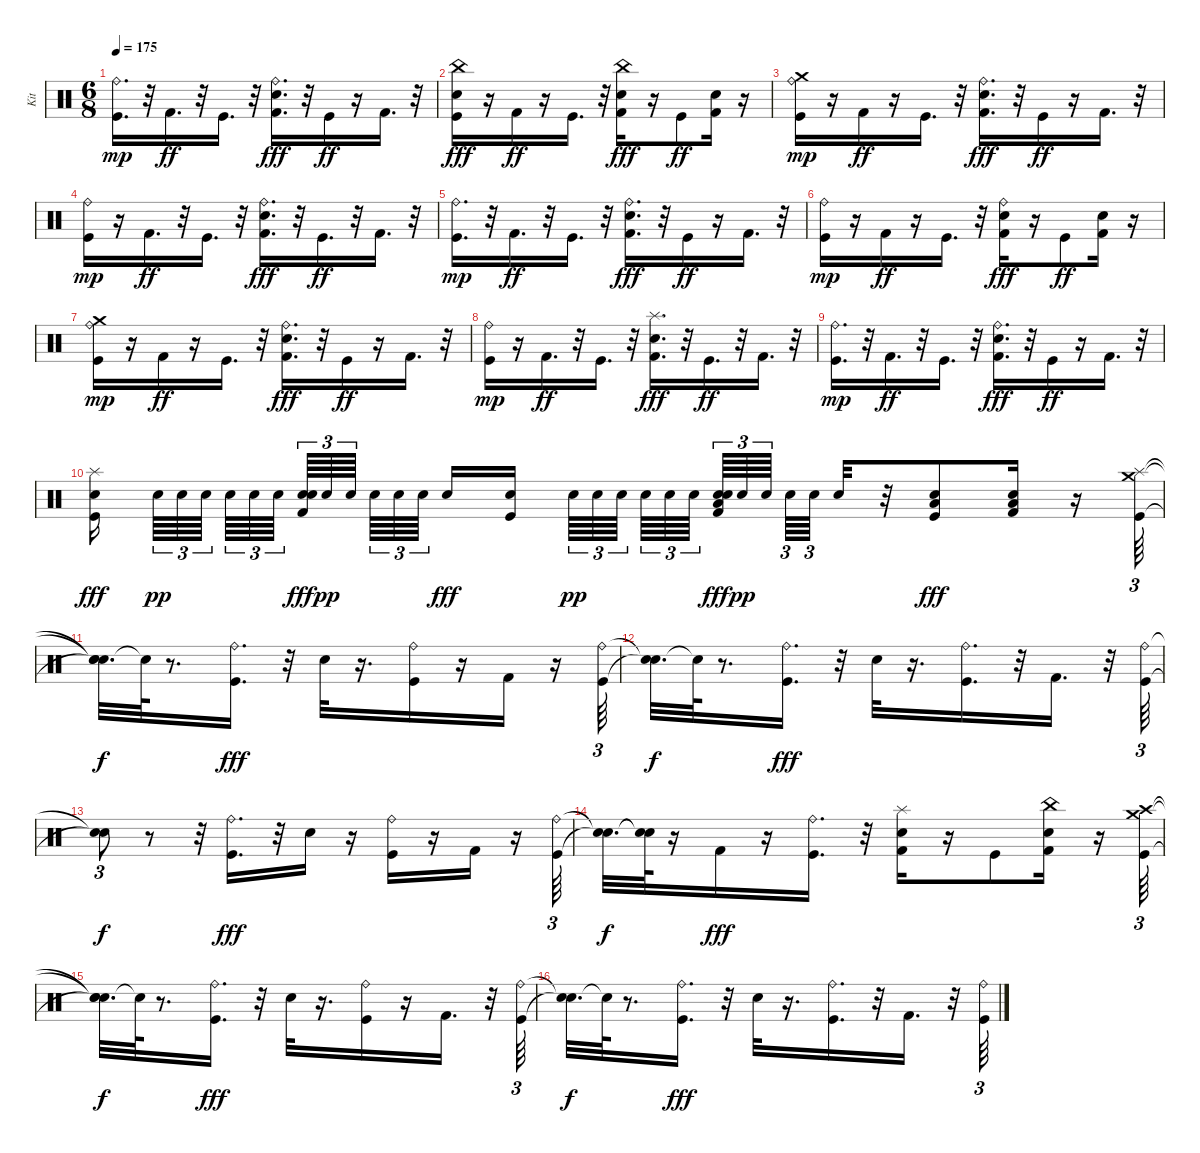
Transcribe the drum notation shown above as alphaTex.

\track ("Kit" "Kit") {instrument percussion}
\staff {score}
\articulation defaults
\ts (6 8)
\tempo 175
\clef neutral
\ks c
("Kick (hit)" "Ride (bell)").16{d dy mp} r.32 "Kick (hit) 2".16{d dy ff} r.32 "Kick (hit)".16{d} r.32 ("Kick (hit) 2" "Snare (hit) 2" "Ride (bell)").16{d dy fff} r.32 "Kick (hit)".16{dy ff} r.16 "Kick (hit) 2".16{d} r.32 |
("Kick (hit)" "Snare (hit) 2" "China (hit)").16{dy fff} r.16 "Kick (hit) 2".16{dy ff} r.16 "Kick (hit)".16{d} r.32 ("Kick (hit) 2" "Snare (hit) 2" "China (hit)").16{dy fff} r.16 "Kick (hit)".8{dy ff} ("Kick (hit) 2" "Snare (hit) 2").16 r.16 |
("Kick (hit)" "Ride (bell)" "Crash medium (hit)").16{dy mp} r.16 "Kick (hit) 2".16{dy ff} r.16 "Kick (hit)".16{d} r.32 ("Kick (hit) 2" "Snare (hit) 2" "Ride (bell)").16{d dy fff} r.32 "Kick (hit)".16{dy ff} r.16 "Kick (hit) 2".16{d} r.32 |
("Kick (hit)" "Ride (bell)").16{dy mp} r.16 "Kick (hit) 2".16{d dy ff} r.32 "Kick (hit)".16{d} r.32 ("Kick (hit) 2" "Snare (hit) 2" "Ride (bell)").16{d dy fff} r.32 "Kick (hit)".16{d dy ff} r.32 "Kick (hit) 2".16{d} r.32 |
("Kick (hit)" "Ride (bell)").16{d dy mp} r.32 "Kick (hit) 2".16{d dy ff} r.32 "Kick (hit)".16{d} r.32 ("Kick (hit) 2" "Snare (hit) 2" "Ride (bell)").16{d dy fff} r.32 "Kick (hit)".16{dy ff} r.16 "Kick (hit) 2".16{d} r.32 |
("Kick (hit)" "Ride (bell)").16{dy mp} r.16 "Kick (hit) 2".16{dy ff} r.16 "Kick (hit)".16{d} r.32 ("Kick (hit) 2" "Snare (hit) 2" "Ride (bell)").16{dy fff} r.16 "Kick (hit)".8{dy ff} ("Kick (hit) 2" "Snare (hit) 2").16 r.16 |
("Kick (hit)" "Ride (bell)" "Crash medium (hit)").16{dy mp} r.16 "Kick (hit) 2".16{dy ff} r.16 "Kick (hit)".16{d} r.32 ("Kick (hit) 2" "Snare (hit) 2" "Ride (bell)").16{d dy fff} r.32 "Kick (hit)".16{dy ff} r.16 "Kick (hit) 2".16{d} r.32 |
("Kick (hit)" "Ride (bell)").16{dy mp} r.16 "Kick (hit) 2".16{d dy ff} r.32 "Kick (hit)".16{d} r.32 ("Kick (hit) 2" "Snare (hit) 2" "Splash (hit)").16{d dy fff} r.32 "Kick (hit)".16{d dy ff} r.32 "Kick (hit) 2".16{d} r.32 |
("Kick (hit)" "Ride (bell)").16{d dy mp} r.32 "Kick (hit) 2".16{d dy ff} r.32 "Kick (hit)".16{d} r.32 ("Kick (hit) 2" "Snare (hit) 2" "Ride (bell)").16{d dy fff} r.32 "Kick (hit)".16{dy ff} r.16 "Kick (hit) 2".16{d} r.32 |
("Kick (hit)" "Snare (hit) 2" "Splash (hit)").16{dy fff beam splitsecondary} "Snare (hit) 2".64{tu (3 2) dy pp} "Snare (hit) 2".64{tu (3 2)} "Snare (hit) 2".64{tu (3 2) beam splitsecondary} "Snare (hit) 2".64{tu (3 2)} "Snare (hit) 2".64{tu (3 2)} "Snare (hit) 2".64{tu (3 2) beam splitsecondary} ("Kick (hit) 2" "Snare (hit) 2" "Snare (hit) 2").64{tu (3 2) dy fff} "Snare (hit) 2".64{tu (3 2) dy pp} "Snare (hit) 2".64{tu (3 2) beam splitsecondary} "Snare (hit) 2".64{tu (3 2)} "Snare (hit) 2".64{tu (3 2)} "Snare (hit) 2".64{tu (3 2) beam splitsecondary} "Snare (hit) 2".16{dy fff} ("Kick (hit)" "Snare (hit) 2").16{beam splitsecondary} "Snare (hit) 2".64{tu (3 2) dy pp} "Snare (hit) 2".64{tu (3 2)} "Snare (hit) 2".64{tu (3 2) beam splitsecondary} "Snare (hit) 2".64{tu (3 2)} "Snare (hit) 2".64{tu (3 2)} "Snare (hit) 2".64{tu (3 2)} ("Kick (hit) 2" "Snare (hit) 2" "Snare (hit) 2" "Low Floor Tom (hit)").64{tu (3 2) dy fff} "Snare (hit) 2".64{tu (3 2) dy pp} "Snare (hit) 2".64{tu (3 2) beam splitsecondary} "Snare (hit) 2".64{tu (3 2)} "Snare (hit) 2".64{tu (3 2) beam splitsecondary} "Snare (hit) 2".32 r.32 ("Kick (hit)" "Snare (hit) 2" "Low Floor Tom (hit)").8{dy fff} ("Kick (hit) 2" "Snare (hit) 2" "Low Floor Tom (hit)").16 r.16 ("Kick (hit)" "Splash (hit)" "Crash medium (hit)").64{tu (3 2)} |
("Snare (hit)"{t} "Snare (hit)"{t} "Snare (hit)"{t}).32{d dy f} "Snare (hit)"{t}.64 r.8{d} ("Kick (hit)" "Ride (bell)").16{d dy fff} r.32 "Snare (hit) 2".32 r.16{d} ("Kick (hit)" "Ride (bell)").16 r.16 "Kick (hit) 2".16 r.16 ("Kick (hit)" "Ride (bell)").64{tu (3 2)} |
("Snare (hit)"{t} "Snare (hit)"{t}).32{d dy f} "Snare (hit)"{t}.64 r.8{d} ("Kick (hit)" "Ride (bell)").16{d dy fff} r.32 "Snare (hit) 2".32 r.16{d} ("Kick (hit)" "Ride (bell)").16{d} r.32 "Kick (hit) 2".16{d} r.32 ("Kick (hit)" "Ride (bell)").64{tu (3 2)} |
("Snare (hit)"{t} "Snare (hit)"{t}).8{tu (3 2) dy f} r.8 r.32 ("Kick (hit)" "Ride (bell)").16{d dy fff} r.32 "Snare (hit) 2".16 r.16 ("Kick (hit)" "Ride (bell)").16 r.16 "Kick (hit) 2".16 r.16 ("Kick (hit)" "Ride (bell)").64{tu (3 2)} |
("Snare (hit)"{t} "Snare (hit)"{t}).32{d dy f} ("Snare (hit)"{t} "Snare (hit)"{t}).64 r.16 "Kick (hit) 2".16{dy fff} r.16 ("Kick (hit)" "Ride (bell)").16{d} r.32 ("Kick (hit) 2" "Snare (hit) 2" "Splash (hit)").16 r.16 "Kick (hit)".8 ("Kick (hit) 2" "Snare (hit) 2" "China (hit)").16 r.16 ("Kick (hit)" "Crash high (hit)" "Crash medium (hit)").64{tu (3 2)} |
("Snare (hit)"{t} "Snare (hit)"{t} "Snare (hit)"{t}).32{d dy f} "Snare (hit)"{t}.64 r.8{d} ("Kick (hit)" "Ride (bell)").16{d dy fff} r.32 "Snare (hit) 2".32 r.16{d} ("Kick (hit)" "Ride (bell)").16 r.16 "Kick (hit) 2".16{d} r.32 ("Kick (hit)" "Ride (bell)").64{tu (3 2)} |
("Snare (hit)"{t} "Snare (hit)"{t}).32{d dy f} "Snare (hit)"{t}.64 r.8{d} ("Kick (hit)" "Ride (bell)").16{d dy fff} r.32 "Snare (hit) 2".32 r.16{d} ("Kick (hit)" "Ride (bell)").16{d} r.32 "Kick (hit) 2".16{d} r.32 ("Kick (hit)" "Ride (bell)").64{tu (3 2)}
